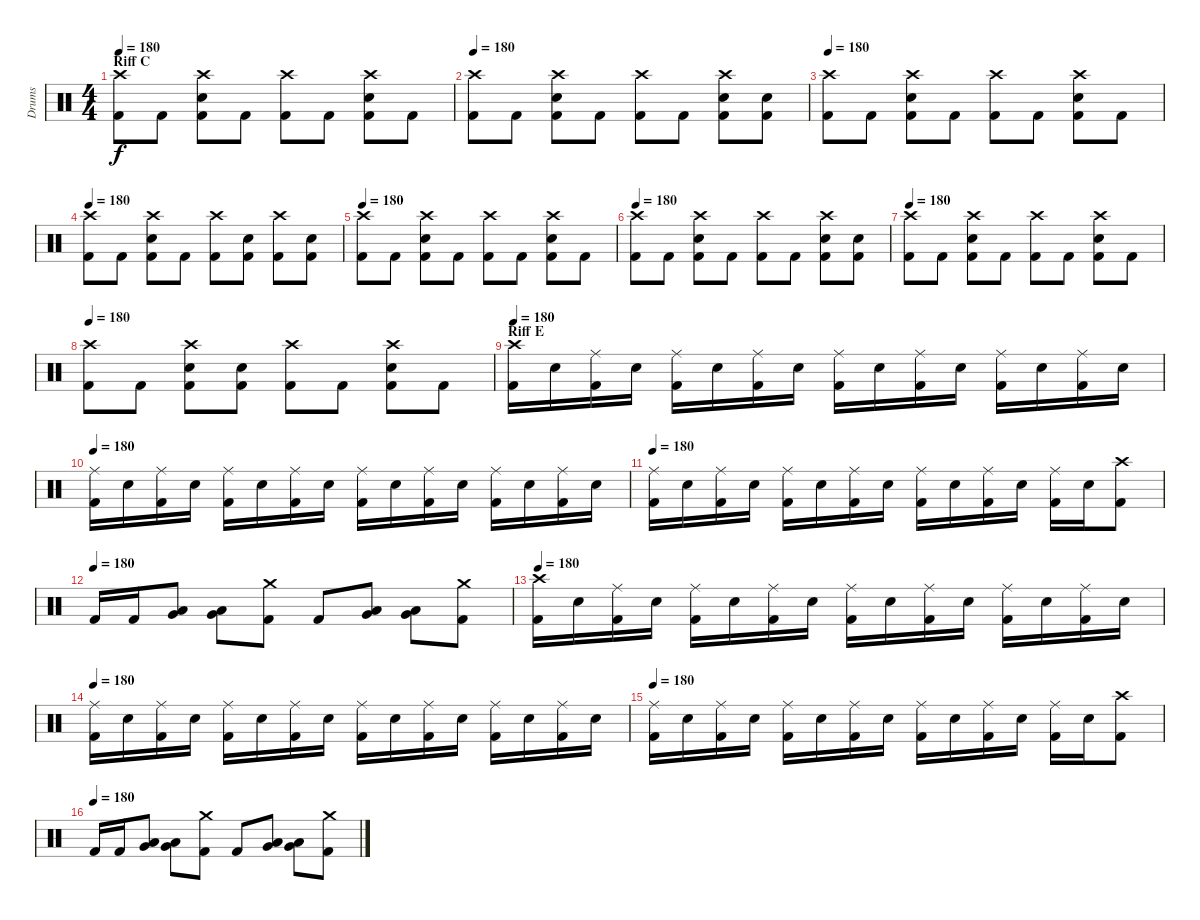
\track ("Drums" "Drums") {instrument percussion}
\staff {score}
\articulation defaults
\ts (4 4)
\section ("" "Riff C")
\tempo 180
\clef neutral
\ks c
("Crash high (hit)" "Kick (hit) 2").8{dy f} "Kick (hit) 2".8 ("Crash high (hit)" "Electric Snare (hit)" "Kick (hit) 2").8 "Kick (hit) 2".8 ("Crash high (hit)" "Kick (hit) 2").8 "Kick (hit) 2".8 ("Crash high (hit)" "Electric Snare (hit)" "Kick (hit) 2").8 "Kick (hit) 2".8 |
\tempo 180
("Crash high (hit)" "Kick (hit) 2").8 "Kick (hit) 2".8 ("Crash high (hit)" "Electric Snare (hit)" "Kick (hit) 2").8 "Kick (hit) 2".8 ("Crash high (hit)" "Kick (hit) 2").8 "Kick (hit) 2".8 ("Crash high (hit)" "Electric Snare (hit)" "Kick (hit) 2").8 ("Electric Snare (hit)" "Kick (hit) 2").8 |
\tempo 180
("Crash high (hit)" "Kick (hit) 2").8 "Kick (hit) 2".8 ("Crash high (hit)" "Electric Snare (hit)" "Kick (hit) 2").8 "Kick (hit) 2".8 ("Crash high (hit)" "Kick (hit) 2").8 "Kick (hit) 2".8 ("Crash high (hit)" "Electric Snare (hit)" "Kick (hit) 2").8 "Kick (hit) 2".8 |
\tempo 180
("Crash high (hit)" "Kick (hit) 2").8 "Kick (hit) 2".8 ("Crash high (hit)" "Electric Snare (hit)" "Kick (hit) 2").8 "Kick (hit) 2".8 ("Crash high (hit)" "Kick (hit) 2").8 ("Electric Snare (hit)" "Kick (hit) 2").8 ("Crash high (hit)" "Kick (hit) 2").8 ("Electric Snare (hit)" "Kick (hit) 2").8 |
\tempo 180
("Crash high (hit)" "Kick (hit) 2").8 "Kick (hit) 2".8 ("Crash high (hit)" "Electric Snare (hit)" "Kick (hit) 2").8 "Kick (hit) 2".8 ("Crash high (hit)" "Kick (hit) 2").8 "Kick (hit) 2".8 ("Crash high (hit)" "Electric Snare (hit)" "Kick (hit) 2").8 "Kick (hit) 2".8 |
\tempo 180
("Crash high (hit)" "Kick (hit) 2").8 "Kick (hit) 2".8 ("Crash high (hit)" "Electric Snare (hit)" "Kick (hit) 2").8 "Kick (hit) 2".8 ("Crash high (hit)" "Kick (hit) 2").8 "Kick (hit) 2".8 ("Crash high (hit)" "Electric Snare (hit)" "Kick (hit) 2").8 ("Electric Snare (hit)" "Kick (hit) 2").8 |
\tempo 180
("Crash high (hit)" "Kick (hit) 2").8 "Kick (hit) 2".8 ("Crash high (hit)" "Electric Snare (hit)" "Kick (hit) 2").8 "Kick (hit) 2".8 ("Crash high (hit)" "Kick (hit) 2").8 "Kick (hit) 2".8 ("Crash high (hit)" "Electric Snare (hit)" "Kick (hit) 2").8 "Kick (hit) 2".8 |
\tempo 180
("Crash high (hit)" "Kick (hit) 2").8 "Kick (hit) 2".8 ("Crash high (hit)" "Electric Snare (hit)" "Kick (hit) 2").8 ("Electric Snare (hit)" "Kick (hit) 2").8 ("Crash high (hit)" "Kick (hit) 2").8 "Kick (hit) 2".8 ("Crash high (hit)" "Electric Snare (hit)" "Kick (hit) 2").8 "Kick (hit) 2".8 |
\section ("" "Riff E")
\tempo 180
("Crash high (hit)" "Kick (hit) 2").16 "Electric Snare (hit)".16 ("Ride (middle)" "Kick (hit) 2").16 "Electric Snare (hit)".16 ("Ride (middle)" "Kick (hit) 2").16 "Electric Snare (hit)".16 ("Ride (middle)" "Kick (hit) 2").16 "Electric Snare (hit)".16 ("Ride (middle)" "Kick (hit) 2").16 "Electric Snare (hit)".16 ("Ride (middle)" "Kick (hit) 2").16 "Electric Snare (hit)".16 ("Ride (middle)" "Kick (hit) 2").16 "Electric Snare (hit)".16 ("Ride (middle)" "Kick (hit) 2").16 "Electric Snare (hit)".16 |
\tempo 180
("Ride (middle)" "Kick (hit) 2").16 "Electric Snare (hit)".16 ("Ride (middle)" "Kick (hit) 2").16 "Electric Snare (hit)".16 ("Ride (middle)" "Kick (hit) 2").16 "Electric Snare (hit)".16 ("Ride (middle)" "Kick (hit) 2").16 "Electric Snare (hit)".16 ("Ride (middle)" "Kick (hit) 2").16 "Electric Snare (hit)".16 ("Ride (middle)" "Kick (hit) 2").16 "Electric Snare (hit)".16 ("Ride (middle)" "Kick (hit) 2").16 "Electric Snare (hit)".16 ("Ride (middle)" "Kick (hit) 2").16 "Electric Snare (hit)".16 |
\tempo 180
("Ride (middle)" "Kick (hit) 2").16 "Electric Snare (hit)".16 ("Ride (middle)" "Kick (hit) 2").16 "Electric Snare (hit)".16 ("Ride (middle)" "Kick (hit) 2").16 "Electric Snare (hit)".16 ("Ride (middle)" "Kick (hit) 2").16 "Electric Snare (hit)".16 ("Ride (middle)" "Kick (hit) 2").16 "Electric Snare (hit)".16 ("Ride (middle)" "Kick (hit) 2").16 "Electric Snare (hit)".16 ("Ride (middle)" "Kick (hit) 2").16 "Electric Snare (hit)".16 ("Crash high (hit)" "Kick (hit) 2").8 |
\tempo (180)
"Kick (hit) 2".16 "Kick (hit) 2".16 ("Low Tom (hit)" "Very Low Tom (hit)").8 ("Low Tom (hit)" "Very Low Tom (hit)").8 ("Crash medium (hit)" "Kick (hit) 2").8 "Kick (hit) 2".8 ("Low Tom (hit)" "Very Low Tom (hit)").8 ("Low Tom (hit)" "Very Low Tom (hit)").8 ("Crash medium (hit)" "Kick (hit) 2").8 |
\tempo 180
("Crash high (hit)" "Kick (hit) 2").16 "Electric Snare (hit)".16 ("Ride (middle)" "Kick (hit) 2").16 "Electric Snare (hit)".16 ("Ride (middle)" "Kick (hit) 2").16 "Electric Snare (hit)".16 ("Ride (middle)" "Kick (hit) 2").16 "Electric Snare (hit)".16 ("Ride (middle)" "Kick (hit) 2").16 "Electric Snare (hit)".16 ("Ride (middle)" "Kick (hit) 2").16 "Electric Snare (hit)".16 ("Ride (middle)" "Kick (hit) 2").16 "Electric Snare (hit)".16 ("Ride (middle)" "Kick (hit) 2").16 "Electric Snare (hit)".16 |
\tempo 180
("Ride (middle)" "Kick (hit) 2").16 "Electric Snare (hit)".16 ("Ride (middle)" "Kick (hit) 2").16 "Electric Snare (hit)".16 ("Ride (middle)" "Kick (hit) 2").16 "Electric Snare (hit)".16 ("Ride (middle)" "Kick (hit) 2").16 "Electric Snare (hit)".16 ("Ride (middle)" "Kick (hit) 2").16 "Electric Snare (hit)".16 ("Ride (middle)" "Kick (hit) 2").16 "Electric Snare (hit)".16 ("Ride (middle)" "Kick (hit) 2").16 "Electric Snare (hit)".16 ("Ride (middle)" "Kick (hit) 2").16 "Electric Snare (hit)".16 |
\tempo 180
("Ride (middle)" "Kick (hit) 2").16 "Electric Snare (hit)".16 ("Ride (middle)" "Kick (hit) 2").16 "Electric Snare (hit)".16 ("Ride (middle)" "Kick (hit) 2").16 "Electric Snare (hit)".16 ("Ride (middle)" "Kick (hit) 2").16 "Electric Snare (hit)".16 ("Ride (middle)" "Kick (hit) 2").16 "Electric Snare (hit)".16 ("Ride (middle)" "Kick (hit) 2").16 "Electric Snare (hit)".16 ("Ride (middle)" "Kick (hit) 2").16 "Electric Snare (hit)".16 ("Crash high (hit)" "Kick (hit) 2").8 |
\tempo (180)
"Kick (hit) 2".16 "Kick (hit) 2".16 ("Low Tom (hit)" "Very Low Tom (hit)").8 ("Low Tom (hit)" "Very Low Tom (hit)").8 ("Crash medium (hit)" "Kick (hit) 2").8 "Kick (hit) 2".8 ("Low Tom (hit)" "Very Low Tom (hit)").8 ("Low Tom (hit)" "Very Low Tom (hit)").8 ("Crash medium (hit)" "Kick (hit) 2").8
